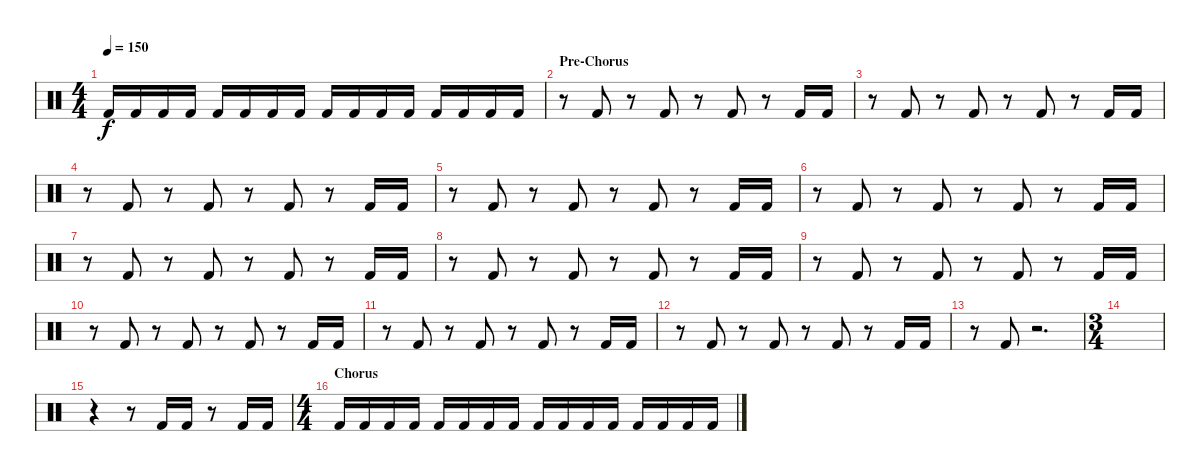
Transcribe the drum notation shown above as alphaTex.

\track "" {instrument percussion}
\staff {score}
\articulation defaults
\ts (4 4)
\tempo 150
\clef neutral
\ks c "Kick (hit) 2".16{dy f} "Kick (hit) 2".16 "Kick (hit) 2".16 "Kick (hit) 2".16 "Kick (hit) 2".16 "Kick (hit) 2".16 "Kick (hit) 2".16 "Kick (hit) 2".16 "Kick (hit) 2".16 "Kick (hit) 2".16 "Kick (hit) 2".16 "Kick (hit) 2".16 "Kick (hit) 2".16 "Kick (hit) 2".16 "Kick (hit) 2".16 "Kick (hit) 2".16
|
\section ("" "Pre-Chorus")
r.8 "Kick (hit) 2".8 r.8 "Kick (hit) 2".8 r.8 "Kick (hit) 2".8 r.8 "Kick (hit) 2".16 "Kick (hit) 2".16 |
r.8 "Kick (hit) 2".8 r.8 "Kick (hit) 2".8 r.8 "Kick (hit) 2".8 r.8 "Kick (hit) 2".16 "Kick (hit) 2".16 |
r.8 "Kick (hit) 2".8 r.8 "Kick (hit) 2".8 r.8 "Kick (hit) 2".8 r.8 "Kick (hit) 2".16 "Kick (hit) 2".16 |
r.8 "Kick (hit) 2".8 r.8 "Kick (hit) 2".8 r.8 "Kick (hit) 2".8 r.8 "Kick (hit) 2".16 "Kick (hit) 2".16 |
r.8 "Kick (hit) 2".8 r.8 "Kick (hit) 2".8 r.8 "Kick (hit) 2".8 r.8 "Kick (hit) 2".16 "Kick (hit) 2".16 |
r.8 "Kick (hit) 2".8 r.8 "Kick (hit) 2".8 r.8 "Kick (hit) 2".8 r.8 "Kick (hit) 2".16 "Kick (hit) 2".16 |
r.8 "Kick (hit) 2".8 r.8 "Kick (hit) 2".8 r.8 "Kick (hit) 2".8 r.8 "Kick (hit) 2".16 "Kick (hit) 2".16 |
r.8 "Kick (hit) 2".8 r.8 "Kick (hit) 2".8 r.8 "Kick (hit) 2".8 r.8 "Kick (hit) 2".16 "Kick (hit) 2".16 |
r.8 "Kick (hit) 2".8 r.8 "Kick (hit) 2".8 r.8 "Kick (hit) 2".8 r.8 "Kick (hit) 2".16 "Kick (hit) 2".16 |
r.8 "Kick (hit) 2".8 r.8 "Kick (hit) 2".8 r.8 "Kick (hit) 2".8 r.8 "Kick (hit) 2".16 "Kick (hit) 2".16 |
r.8 "Kick (hit) 2".8 r.8 "Kick (hit) 2".8 r.8 "Kick (hit) 2".8 r.8 "Kick (hit) 2".16 "Kick (hit) 2".16 |
r.8 "Kick (hit) 2".8 r.2{d} |
\ts (3 4)
|
r.4 r.8 "Kick (hit) 2".16 "Kick (hit) 2".16 r.8 "Kick (hit) 2".16 "Kick (hit) 2".16 |
\ts (4 4)
\section ("" "Chorus")
"Kick (hit) 2".16 "Kick (hit) 2".16 "Kick (hit) 2".16 "Kick (hit) 2".16 "Kick (hit) 2".16 "Kick (hit) 2".16 "Kick (hit) 2".16 "Kick (hit) 2".16 "Kick (hit) 2".16 "Kick (hit) 2".16 "Kick (hit) 2".16 "Kick (hit) 2".16 "Kick (hit) 2".16 "Kick (hit) 2".16 "Kick (hit) 2".16 "Kick (hit) 2".16
